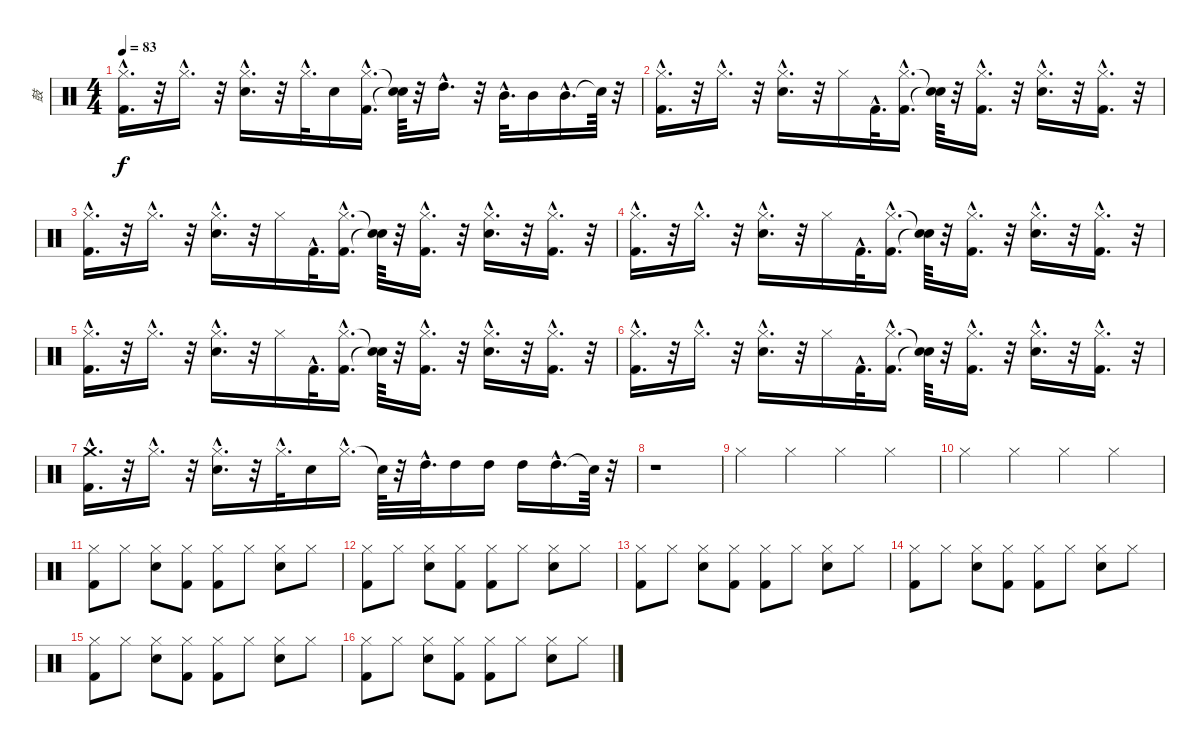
\track ("鼓" "鼓") {instrument percussion}
\staff {score}
\articulation defaults
\ts (4 4)
\tempo 83
\clef neutral
\ks c
("Kick (hit) 2"{hac} "Hi-Hat (closed)"{hac}).16{d dy f} r.32 "Hi-Hat (closed)"{hac}.16{d} r.32 ("Hi-Hat (closed)"{hac} "Snare (hit) 2"{hac}).16{d} r.32 "Hi-Hat (closed)"{hac}.32{d} "Snare (hit) 2".16 ("Kick (hit) 2"{hac} "Hi-Hat (closed)"{hac}).16{d} ("Snare (hit)"{t} "Snare (hit)"{t}).64 r.32 "High Tom (hit)"{hac}.16{d} r.32 "Mid Tom (hit)"{hac}.32{d} "Mid Tom (hit)".16 "Mid Tom (hit)"{hac}.16{d} "Snare (hit)"{t}.64 r.32 |
("Kick (hit) 2"{hac} "Hi-Hat (closed)"{hac}).16{d} r.32 "Hi-Hat (closed)"{hac}.16{d} r.32 ("Hi-Hat (closed)"{hac} "Snare (hit) 2"{hac}).16{d} r.32 "Hi-Hat (closed)".16 "Kick (hit) 2"{hac}.32{d} ("Hi-Hat (closed)"{hac} "Kick (hit) 2"{hac}).16{d} ("Snare (hit)"{t} "Snare (hit)"{t}).64 r.32 ("Hi-Hat (closed)"{hac} "Kick (hit) 2"{hac}).16{d} r.32 ("Snare (hit) 2"{hac} "Hi-Hat (closed)"{hac}).16{d} r.32 ("Kick (hit) 2"{hac} "Hi-Hat (closed)"{hac}).16{d} r.32 |
("Kick (hit) 2"{hac} "Hi-Hat (closed)"{hac}).16{d} r.32 "Hi-Hat (closed)"{hac}.16{d} r.32 ("Hi-Hat (closed)"{hac} "Snare (hit) 2"{hac}).16{d} r.32 "Hi-Hat (closed)".16 "Kick (hit) 2"{hac}.32{d} ("Hi-Hat (closed)"{hac} "Kick (hit) 2"{hac}).16{d} ("Snare (hit)"{t} "Snare (hit)"{t}).64 r.32 ("Hi-Hat (closed)"{hac} "Kick (hit) 2"{hac}).16{d} r.32 ("Snare (hit) 2"{hac} "Hi-Hat (closed)"{hac}).16{d} r.32 ("Kick (hit) 2"{hac} "Hi-Hat (closed)"{hac}).16{d} r.32 |
("Kick (hit) 2"{hac} "Hi-Hat (closed)"{hac}).16{d} r.32 "Hi-Hat (closed)"{hac}.16{d} r.32 ("Hi-Hat (closed)"{hac} "Snare (hit) 2"{hac}).16{d} r.32 "Hi-Hat (closed)".16 "Kick (hit) 2"{hac}.32{d} ("Hi-Hat (closed)"{hac} "Kick (hit) 2"{hac}).16{d} ("Snare (hit)"{t} "Snare (hit)"{t}).64 r.32 ("Hi-Hat (closed)"{hac} "Kick (hit) 2"{hac}).16{d} r.32 ("Snare (hit) 2"{hac} "Hi-Hat (closed)"{hac}).16{d} r.32 ("Kick (hit) 2"{hac} "Hi-Hat (closed)"{hac}).16{d} r.32 |
("Kick (hit) 2"{hac} "Hi-Hat (closed)"{hac}).16{d} r.32 "Hi-Hat (closed)"{hac}.16{d} r.32 ("Snare (hit) 2"{hac} "Hi-Hat (closed)"{hac}).16{d} r.32 "Hi-Hat (closed)".16 "Kick (hit) 2"{hac}.32{d} ("Hi-Hat (closed)"{hac} "Kick (hit) 2"{hac}).16{d} ("Snare (hit)"{t} "Snare (hit)"{t}).64 r.32 ("Hi-Hat (closed)"{hac} "Kick (hit) 2"{hac}).16{d} r.32 ("Snare (hit) 2"{hac} "Hi-Hat (closed)"{hac}).16{d} r.32 ("Hi-Hat (closed)"{hac} "Kick (hit) 2"{hac}).16{d} r.32 |
("Kick (hit) 2"{hac} "Hi-Hat (closed)"{hac}).16{d} r.32 "Hi-Hat (closed)"{hac}.16{d} r.32 ("Snare (hit) 2"{hac} "Hi-Hat (closed)"{hac}).16{d} r.32 "Hi-Hat (closed)".16 "Kick (hit) 2"{hac}.32{d} ("Hi-Hat (closed)"{hac} "Kick (hit) 2"{hac}).16{d} ("Snare (hit)"{t} "Snare (hit)"{t}).64 r.32 ("Hi-Hat (closed)"{hac} "Kick (hit) 2"{hac}).16{d} r.32 ("Snare (hit) 2"{hac} "Hi-Hat (closed)"{hac}).16{d} r.32 ("Kick (hit) 2"{hac} "Hi-Hat (closed)"{hac}).16{d} r.32 |
("Crash medium (hit)"{hac} "Kick (hit) 2"{hac}).16{d} r.32 "Hi-Hat (closed)"{hac}.16{d} r.32 ("Snare (hit) 2"{hac} "Hi-Hat (closed)"{hac}).16{d} r.32 "Hi-Hat (closed)"{hac}.32{d} "Snare (hit) 2".16 "Hi-Hat (closed)"{hac}.16{d} "Snare (hit)"{t}.64 r.32 "High Tom (hit)"{hac}.32{d} "High Tom (hit)".16 "High Tom (hit)".16 "High Tom (hit)".16 "High Tom (hit)"{hac}.16{d} "Snare (hit)"{t}.64 r.32 |
r.1 |
"Hi-Hat (closed)".4 "Hi-Hat (closed)".4 "Hi-Hat (closed)".4 "Hi-Hat (closed)".4 |
"Hi-Hat (closed)".4 "Hi-Hat (closed)".4 "Hi-Hat (closed)".4 "Hi-Hat (closed)".4 |
("Kick (hit) 2" "Hi-Hat (closed)").8 "Hi-Hat (closed)".8 ("Hi-Hat (closed)" "Snare (hit) 2").8 ("Hi-Hat (closed)" "Kick (hit) 2").8 ("Kick (hit) 2" "Hi-Hat (closed)").8 "Hi-Hat (closed)".8 ("Hi-Hat (closed)" "Snare (hit) 2").8 "Hi-Hat (closed)".8 |
("Kick (hit) 2" "Hi-Hat (closed)").8 "Hi-Hat (closed)".8 ("Hi-Hat (closed)" "Snare (hit) 2").8 ("Hi-Hat (closed)" "Kick (hit) 2").8 ("Kick (hit) 2" "Hi-Hat (closed)").8 "Hi-Hat (closed)".8 ("Hi-Hat (closed)" "Snare (hit) 2").8 "Hi-Hat (closed)".8 |
("Kick (hit) 2" "Hi-Hat (closed)").8 "Hi-Hat (closed)".8 ("Hi-Hat (closed)" "Snare (hit) 2").8 ("Hi-Hat (closed)" "Kick (hit) 2").8 ("Kick (hit) 2" "Hi-Hat (closed)").8 "Hi-Hat (closed)".8 ("Hi-Hat (closed)" "Snare (hit) 2").8 "Hi-Hat (closed)".8 |
("Kick (hit) 2" "Hi-Hat (closed)").8 "Hi-Hat (closed)".8 ("Hi-Hat (closed)" "Snare (hit) 2").8 ("Hi-Hat (closed)" "Kick (hit) 2").8 ("Kick (hit) 2" "Hi-Hat (closed)").8 "Hi-Hat (closed)".8 ("Hi-Hat (closed)" "Snare (hit) 2").8 "Hi-Hat (closed)".8 |
("Kick (hit) 2" "Hi-Hat (closed)").8 "Hi-Hat (closed)".8 ("Hi-Hat (closed)" "Snare (hit) 2").8 ("Hi-Hat (closed)" "Kick (hit) 2").8 ("Kick (hit) 2" "Hi-Hat (closed)").8 "Hi-Hat (closed)".8 ("Hi-Hat (closed)" "Snare (hit) 2").8 "Hi-Hat (closed)".8 |
("Kick (hit) 2" "Hi-Hat (closed)").8 "Hi-Hat (closed)".8 ("Hi-Hat (closed)" "Snare (hit) 2").8 ("Hi-Hat (closed)" "Kick (hit) 2").8 ("Kick (hit) 2" "Hi-Hat (closed)").8 "Hi-Hat (closed)".8 ("Hi-Hat (closed)" "Snare (hit) 2").8 "Hi-Hat (closed)".8
